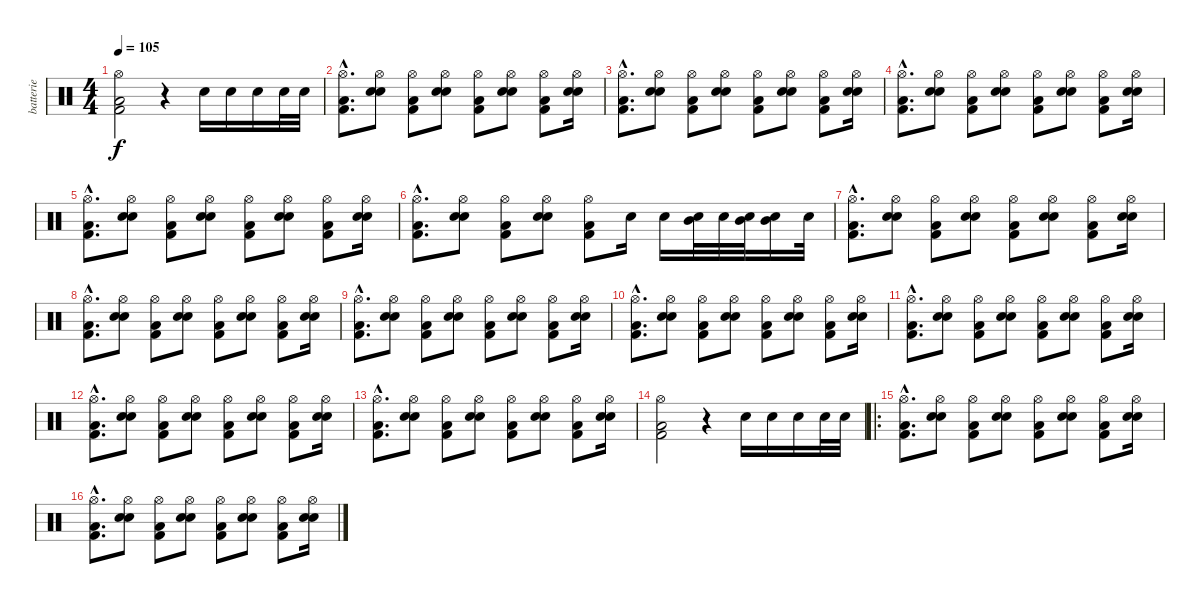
\track ("batterie" "batterie") {instrument percussion}
\staff {score}
\articulation defaults
\ts (4 4)
\tempo 105
\clef neutral
\ks c
("Kick (hit) 2" "Low Floor Tom (hit)" "Hi-Hat (open)").2{dy f} r.4 "Electric Snare (hit)".16 "Electric Snare (hit)".16 "Electric Snare (hit)".16 "Electric Snare (hit)".32 "Electric Snare (hit)".32 |
("Kick (hit) 2"{hac} "Low Floor Tom (hit)"{hac} "Hi-Hat (open)"{hac}).8{d} ("Electric Snare (hit)" "Snare (hit) 2" "Hi-Hat (open)").8 ("Kick (hit) 2" "Low Floor Tom (hit)" "Hi-Hat (open)").8 ("Electric Snare (hit)" "Snare (hit) 2" "Hi-Hat (open)").8 ("Kick (hit) 2" "Low Floor Tom (hit)" "Hi-Hat (open)").8 ("Electric Snare (hit)" "Snare (hit) 2" "Hi-Hat (open)").8 ("Kick (hit) 2" "Low Floor Tom (hit)" "Hi-Hat (open)").8 ("Electric Snare (hit)" "Snare (hit) 2" "Hi-Hat (open)").16 |
("Kick (hit) 2"{hac} "Low Floor Tom (hit)"{hac} "Hi-Hat (open)"{hac}).8{d} ("Electric Snare (hit)" "Snare (hit) 2" "Hi-Hat (open)").8 ("Kick (hit) 2" "Low Floor Tom (hit)" "Hi-Hat (open)").8 ("Electric Snare (hit)" "Snare (hit) 2" "Hi-Hat (open)").8 ("Kick (hit) 2" "Low Floor Tom (hit)" "Hi-Hat (open)").8 ("Electric Snare (hit)" "Snare (hit) 2" "Hi-Hat (open)").8 ("Kick (hit) 2" "Low Floor Tom (hit)" "Hi-Hat (open)").8 ("Electric Snare (hit)" "Snare (hit) 2" "Hi-Hat (open)").16 |
("Kick (hit) 2"{hac} "Low Floor Tom (hit)"{hac} "Hi-Hat (open)"{hac}).8{d} ("Electric Snare (hit)" "Snare (hit) 2" "Hi-Hat (open)").8 ("Kick (hit) 2" "Low Floor Tom (hit)" "Hi-Hat (open)").8 ("Electric Snare (hit)" "Snare (hit) 2" "Hi-Hat (open)").8 ("Kick (hit) 2" "Low Floor Tom (hit)" "Hi-Hat (open)").8 ("Electric Snare (hit)" "Snare (hit) 2" "Hi-Hat (open)").8 ("Kick (hit) 2" "Low Floor Tom (hit)" "Hi-Hat (open)").8 ("Electric Snare (hit)" "Snare (hit) 2" "Hi-Hat (open)").16 |
("Kick (hit) 2"{hac} "Low Floor Tom (hit)"{hac} "Hi-Hat (open)"{hac}).8{d} ("Electric Snare (hit)" "Snare (hit) 2" "Hi-Hat (open)").8 ("Kick (hit) 2" "Low Floor Tom (hit)" "Hi-Hat (open)").8 ("Electric Snare (hit)" "Snare (hit) 2" "Hi-Hat (open)").8 ("Kick (hit) 2" "Low Floor Tom (hit)" "Hi-Hat (open)").8 ("Electric Snare (hit)" "Snare (hit) 2" "Hi-Hat (open)").8 ("Kick (hit) 2" "Low Floor Tom (hit)" "Hi-Hat (open)").8 ("Electric Snare (hit)" "Snare (hit) 2" "Hi-Hat (open)").16 |
("Kick (hit) 2"{hac} "Low Floor Tom (hit)"{hac} "Hi-Hat (open)"{hac}).8{d} ("Electric Snare (hit)" "Snare (hit) 2" "Hi-Hat (open)").8 ("Kick (hit) 2" "Low Floor Tom (hit)" "Hi-Hat (open)").8 ("Electric Snare (hit)" "Snare (hit) 2" "Hi-Hat (open)").8 ("Kick (hit) 2" "Low Floor Tom (hit)" "Hi-Hat (open)").8 "Electric Snare (hit)".16 "Electric Snare (hit)".16 ("Electric Snare (hit)" "Mid Tom (hit)").32 "Electric Snare (hit)".32 ("Electric Snare (hit)" "Mid Tom (hit)").32 ("Electric Snare (hit)" "Mid Tom (hit)").16 "Electric Snare (hit)".32 |
("Kick (hit) 2"{hac} "Low Floor Tom (hit)"{hac} "Hi-Hat (open)"{hac}).8{d} ("Electric Snare (hit)" "Snare (hit) 2" "Hi-Hat (open)").8 ("Kick (hit) 2" "Low Floor Tom (hit)" "Hi-Hat (open)").8 ("Electric Snare (hit)" "Snare (hit) 2" "Hi-Hat (open)").8 ("Kick (hit) 2" "Low Floor Tom (hit)" "Hi-Hat (open)").8 ("Electric Snare (hit)" "Snare (hit) 2" "Hi-Hat (open)").8 ("Kick (hit) 2" "Low Floor Tom (hit)" "Hi-Hat (open)").8 ("Electric Snare (hit)" "Snare (hit) 2" "Hi-Hat (open)").16 |
("Kick (hit) 2"{hac} "Low Floor Tom (hit)"{hac} "Hi-Hat (open)"{hac}).8{d} ("Electric Snare (hit)" "Snare (hit) 2" "Hi-Hat (open)").8 ("Kick (hit) 2" "Low Floor Tom (hit)" "Hi-Hat (open)").8 ("Electric Snare (hit)" "Snare (hit) 2" "Hi-Hat (open)").8 ("Kick (hit) 2" "Low Floor Tom (hit)" "Hi-Hat (open)").8 ("Electric Snare (hit)" "Snare (hit) 2" "Hi-Hat (open)").8 ("Kick (hit) 2" "Low Floor Tom (hit)" "Hi-Hat (open)").8 ("Electric Snare (hit)" "Snare (hit) 2" "Hi-Hat (open)").16 |
("Kick (hit) 2"{hac} "Low Floor Tom (hit)"{hac} "Hi-Hat (open)"{hac}).8{d} ("Electric Snare (hit)" "Snare (hit) 2" "Hi-Hat (open)").8 ("Kick (hit) 2" "Low Floor Tom (hit)" "Hi-Hat (open)").8 ("Electric Snare (hit)" "Snare (hit) 2" "Hi-Hat (open)").8 ("Kick (hit) 2" "Low Floor Tom (hit)" "Hi-Hat (open)").8 ("Electric Snare (hit)" "Snare (hit) 2" "Hi-Hat (open)").8 ("Kick (hit) 2" "Low Floor Tom (hit)" "Hi-Hat (open)").8 ("Electric Snare (hit)" "Snare (hit) 2" "Hi-Hat (open)").16 |
("Kick (hit) 2"{hac} "Low Floor Tom (hit)"{hac} "Hi-Hat (open)"{hac}).8{d} ("Electric Snare (hit)" "Snare (hit) 2" "Hi-Hat (open)").8 ("Kick (hit) 2" "Low Floor Tom (hit)" "Hi-Hat (open)").8 ("Electric Snare (hit)" "Snare (hit) 2" "Hi-Hat (open)").8 ("Kick (hit) 2" "Low Floor Tom (hit)" "Hi-Hat (open)").8 ("Electric Snare (hit)" "Snare (hit) 2" "Hi-Hat (open)").8 ("Kick (hit) 2" "Low Floor Tom (hit)" "Hi-Hat (open)").8 ("Electric Snare (hit)" "Snare (hit) 2" "Hi-Hat (open)").16 |
("Kick (hit) 2"{hac} "Low Floor Tom (hit)"{hac} "Hi-Hat (open)"{hac}).8{d} ("Electric Snare (hit)" "Snare (hit) 2" "Hi-Hat (open)").8 ("Kick (hit) 2" "Low Floor Tom (hit)" "Hi-Hat (open)").8 ("Electric Snare (hit)" "Snare (hit) 2" "Hi-Hat (open)").8 ("Kick (hit) 2" "Low Floor Tom (hit)" "Hi-Hat (open)").8 ("Electric Snare (hit)" "Snare (hit) 2" "Hi-Hat (open)").8 ("Kick (hit) 2" "Low Floor Tom (hit)" "Hi-Hat (open)").8 ("Electric Snare (hit)" "Snare (hit) 2" "Hi-Hat (open)").16 |
("Kick (hit) 2"{hac} "Low Floor Tom (hit)"{hac} "Hi-Hat (open)"{hac}).8{d} ("Electric Snare (hit)" "Snare (hit) 2" "Hi-Hat (open)").8 ("Kick (hit) 2" "Low Floor Tom (hit)" "Hi-Hat (open)").8 ("Electric Snare (hit)" "Snare (hit) 2" "Hi-Hat (open)").8 ("Kick (hit) 2" "Low Floor Tom (hit)" "Hi-Hat (open)").8 ("Electric Snare (hit)" "Snare (hit) 2" "Hi-Hat (open)").8 ("Kick (hit) 2" "Low Floor Tom (hit)" "Hi-Hat (open)").8 ("Electric Snare (hit)" "Snare (hit) 2" "Hi-Hat (open)").16 |
("Kick (hit) 2"{hac} "Low Floor Tom (hit)"{hac} "Hi-Hat (open)"{hac}).8{d} ("Electric Snare (hit)" "Snare (hit) 2" "Hi-Hat (open)").8 ("Kick (hit) 2" "Low Floor Tom (hit)" "Hi-Hat (open)").8 ("Electric Snare (hit)" "Snare (hit) 2" "Hi-Hat (open)").8 ("Kick (hit) 2" "Low Floor Tom (hit)" "Hi-Hat (open)").8 ("Electric Snare (hit)" "Snare (hit) 2" "Hi-Hat (open)").8 ("Kick (hit) 2" "Low Floor Tom (hit)" "Hi-Hat (open)").8 ("Electric Snare (hit)" "Snare (hit) 2" "Hi-Hat (open)").16 |
("Kick (hit) 2" "Low Floor Tom (hit)" "Hi-Hat (open)").2 r.4 "Electric Snare (hit)".16 "Electric Snare (hit)".16 "Electric Snare (hit)".16 "Electric Snare (hit)".32 "Electric Snare (hit)".32 |
\ro
("Kick (hit) 2"{hac} "Low Floor Tom (hit)"{hac} "Hi-Hat (open)"{hac}).8{d} ("Electric Snare (hit)" "Snare (hit) 2" "Hi-Hat (open)").8 ("Kick (hit) 2" "Low Floor Tom (hit)" "Hi-Hat (open)").8 ("Electric Snare (hit)" "Snare (hit) 2" "Hi-Hat (open)").8 ("Kick (hit) 2" "Low Floor Tom (hit)" "Hi-Hat (open)").8 ("Electric Snare (hit)" "Snare (hit) 2" "Hi-Hat (open)").8 ("Kick (hit) 2" "Low Floor Tom (hit)" "Hi-Hat (open)").8 ("Electric Snare (hit)" "Snare (hit) 2" "Hi-Hat (open)").16 |
("Kick (hit) 2"{hac} "Low Floor Tom (hit)"{hac} "Hi-Hat (open)"{hac}).8{d} ("Electric Snare (hit)" "Snare (hit) 2" "Hi-Hat (open)").8 ("Kick (hit) 2" "Low Floor Tom (hit)" "Hi-Hat (open)").8 ("Electric Snare (hit)" "Snare (hit) 2" "Hi-Hat (open)").8 ("Kick (hit) 2" "Low Floor Tom (hit)" "Hi-Hat (open)").8 ("Electric Snare (hit)" "Snare (hit) 2" "Hi-Hat (open)").8 ("Kick (hit) 2" "Low Floor Tom (hit)" "Hi-Hat (open)").8 ("Electric Snare (hit)" "Snare (hit) 2" "Hi-Hat (open)").16
